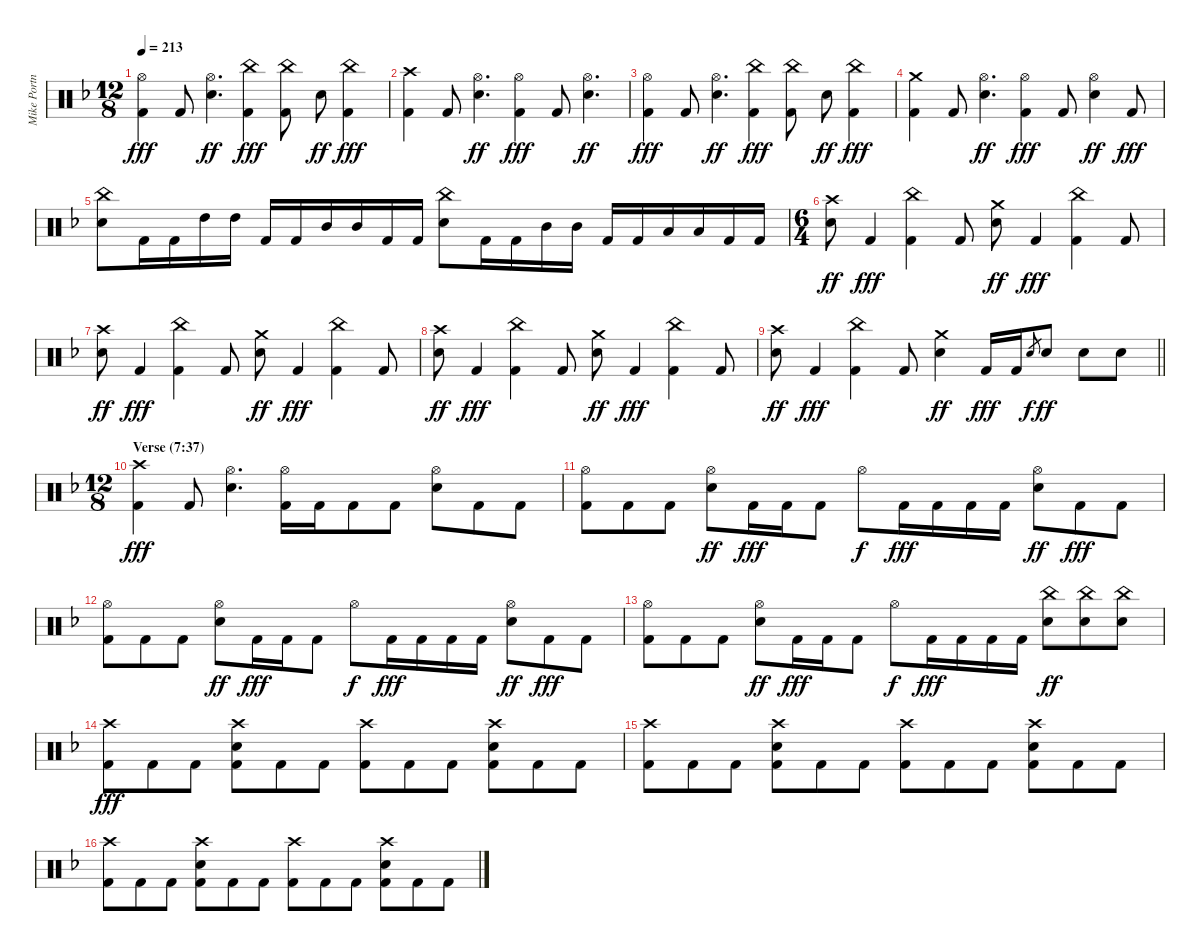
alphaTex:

\track ("Mike Portnoy Drums" "Mike Portn") {instrument percussion}
\staff {score}
\articulation defaults
\ts (12 8)
\tempo 213
\clef neutral
\ks dminor
("Hi-Hat (open)" "Kick (hit) 2").4{dy fff} "Kick (hit) 2".8 ("Hi-Hat (open)" "Electric Snare (hit)").4{d dy ff} ("China (hit)" "Kick (hit) 2").4{dy fff} ("China (hit)" "Kick (hit) 2").8 "Electric Snare (hit)".8{dy ff} ("China (hit)" "Kick (hit) 2").4{dy fff} |
("Crash high (hit)" "Kick (hit) 2").4 "Kick (hit) 2".8 ("Hi-Hat (open)" "Electric Snare (hit)").4{d dy ff} ("Hi-Hat (open)" "Kick (hit) 2").4{dy fff} "Kick (hit) 2".8 ("Hi-Hat (open)" "Electric Snare (hit)").4{d dy ff} |
("Hi-Hat (open)" "Kick (hit) 2").4{dy fff} "Kick (hit) 2".8 ("Hi-Hat (open)" "Electric Snare (hit)").4{d dy ff} ("China (hit)" "Kick (hit) 2").4{dy fff} ("China (hit)" "Kick (hit) 2").8 "Electric Snare (hit)".8{dy ff} ("China (hit)" "Kick (hit) 2").4{dy fff} |
("Crash medium (hit)" "Kick (hit) 2").4 "Kick (hit) 2".8 ("Hi-Hat (open)" "Electric Snare (hit)").4{d dy ff} ("Hi-Hat (open)" "Kick (hit) 2").4{dy fff} "Kick (hit) 2".8 ("Hi-Hat (open)" "Electric Snare (hit)").4{dy ff} "Kick (hit) 2".8{dy fff} |
("China (hit)" "Electric Snare (hit)").8 "Kick (hit) 2".16 "Kick (hit) 2".16 "High Tom (hit)".16 "High Tom (hit)".16 "Kick (hit) 2".16 "Kick (hit) 2".16 "Mid Tom (hit)".16 "Mid Tom (hit)".16 "Kick (hit) 2".16 "Kick (hit) 2".16 ("China (hit)" "Electric Snare (hit)").8 "Kick (hit) 2".16 "Kick (hit) 2".16 "Mid Tom (hit)".16 "Mid Tom (hit)".16 "Kick (hit) 2".16 "Kick (hit) 2".16 "Low Tom (hit)".16 "Low Tom (hit)".16 "Kick (hit) 2".16 "Kick (hit) 2".16 |
\ts (6 4)
("Crash high (hit)" "Electric Snare (hit)").8{dy ff} "Kick (hit) 2".4{dy fff} ("China (hit)" "Kick (hit) 2").4 "Kick (hit) 2".8 ("Crash medium (hit)" "Electric Snare (hit)").8{dy ff} "Kick (hit) 2".4{dy fff} ("China (hit)" "Kick (hit) 2").4 "Kick (hit) 2".8 |
("Crash high (hit)" "Electric Snare (hit)").8{dy ff} "Kick (hit) 2".4{dy fff} ("China (hit)" "Kick (hit) 2").4 "Kick (hit) 2".8 ("Crash medium (hit)" "Electric Snare (hit)").8{dy ff} "Kick (hit) 2".4{dy fff} ("China (hit)" "Kick (hit) 2").4 "Kick (hit) 2".8 |
("Crash high (hit)" "Electric Snare (hit)").8{dy ff} "Kick (hit) 2".4{dy fff} ("China (hit)" "Kick (hit) 2").4 "Kick (hit) 2".8 ("Crash medium (hit)" "Electric Snare (hit)").8{dy ff} "Kick (hit) 2".4{dy fff} ("China (hit)" "Kick (hit) 2").4 "Kick (hit) 2".8 |
\barLineRight lightlight
("Crash high (hit)" "Electric Snare (hit)").8{dy ff} "Kick (hit) 2".4{dy fff} ("China (hit)" "Kick (hit) 2").4 "Kick (hit) 2".8 ("Crash medium (hit)" "Electric Snare (hit)").4{dy ff} "Kick (hit) 2".16{dy fff} "Kick (hit) 2".16 "Electric Snare (hit)".8{gr dy f} "Electric Snare (hit)".8{dy ff} "Electric Snare (hit)".8 "Electric Snare (hit)".8 |
\ts (12 8)
\section ("" "Verse (7:37)")
("Crash high (hit)" "Kick (hit) 2").4{dy fff} "Kick (hit) 2".8 ("Hi-Hat (open)" "Electric Snare (hit)").4{d} ("Hi-Hat (open)" "Kick (hit) 2").16 "Kick (hit) 2".16 "Kick (hit) 2".8 "Kick (hit) 2".8 ("Hi-Hat (open)" "Electric Snare (hit)").8 "Kick (hit) 2".8 "Kick (hit) 2".8 |
("Hi-Hat (open)" "Kick (hit) 2").8 "Kick (hit) 2".8 "Kick (hit) 2".8 ("Hi-Hat (open)" "Electric Snare (hit)").8{dy ff} "Kick (hit) 2".16{dy fff} "Kick (hit) 2".16 "Kick (hit) 2".8 "Hi-Hat (open)".8{dy f} "Kick (hit) 2".16{dy fff} "Kick (hit) 2".16 "Kick (hit) 2".16 "Kick (hit) 2".16 ("Hi-Hat (open)" "Electric Snare (hit)").8{dy ff} "Kick (hit) 2".8{dy fff} "Kick (hit) 2".8 |
("Hi-Hat (open)" "Kick (hit) 2").8 "Kick (hit) 2".8 "Kick (hit) 2".8 ("Hi-Hat (open)" "Electric Snare (hit)").8{dy ff} "Kick (hit) 2".16{dy fff} "Kick (hit) 2".16 "Kick (hit) 2".8 "Hi-Hat (open)".8{dy f} "Kick (hit) 2".16{dy fff} "Kick (hit) 2".16 "Kick (hit) 2".16 "Kick (hit) 2".16 ("Hi-Hat (open)" "Electric Snare (hit)").8{dy ff} "Kick (hit) 2".8{dy fff} "Kick (hit) 2".8 |
("Hi-Hat (open)" "Kick (hit) 2").8 "Kick (hit) 2".8 "Kick (hit) 2".8 ("Hi-Hat (open)" "Electric Snare (hit)").8{dy ff} "Kick (hit) 2".16{dy fff} "Kick (hit) 2".16 "Kick (hit) 2".8 "Hi-Hat (open)".8{dy f} "Kick (hit) 2".16{dy fff} "Kick (hit) 2".16 "Kick (hit) 2".16 "Kick (hit) 2".16 ("China (hit)" "Electric Snare (hit)").8{dy ff} ("China (hit)" "Electric Snare (hit)").8 ("China (hit)" "Electric Snare (hit)").8 |
("Crash high (hit)" "Kick (hit) 2").8{dy fff} "Kick (hit) 2".8 "Kick (hit) 2".8 ("Crash high (hit)" "Electric Snare (hit)" "Kick (hit) 2").8 "Kick (hit) 2".8 "Kick (hit) 2".8 ("Crash high (hit)" "Kick (hit) 2").8 "Kick (hit) 2".8 "Kick (hit) 2".8 ("Crash high (hit)" "Electric Snare (hit)" "Kick (hit) 2").8 "Kick (hit) 2".8 "Kick (hit) 2".8 |
("Crash high (hit)" "Kick (hit) 2").8 "Kick (hit) 2".8 "Kick (hit) 2".8 ("Crash high (hit)" "Electric Snare (hit)" "Kick (hit) 2").8 "Kick (hit) 2".8 "Kick (hit) 2".8 ("Crash high (hit)" "Kick (hit) 2").8 "Kick (hit) 2".8 "Kick (hit) 2".8 ("Crash high (hit)" "Electric Snare (hit)" "Kick (hit) 2").8 "Kick (hit) 2".8 "Kick (hit) 2".8 |
("Crash high (hit)" "Kick (hit) 2").8 "Kick (hit) 2".8 "Kick (hit) 2".8 ("Crash high (hit)" "Electric Snare (hit)" "Kick (hit) 2").8 "Kick (hit) 2".8 "Kick (hit) 2".8 ("Crash high (hit)" "Kick (hit) 2").8 "Kick (hit) 2".8 "Kick (hit) 2".8 ("Crash high (hit)" "Electric Snare (hit)" "Kick (hit) 2").8 "Kick (hit) 2".8 "Kick (hit) 2".8
